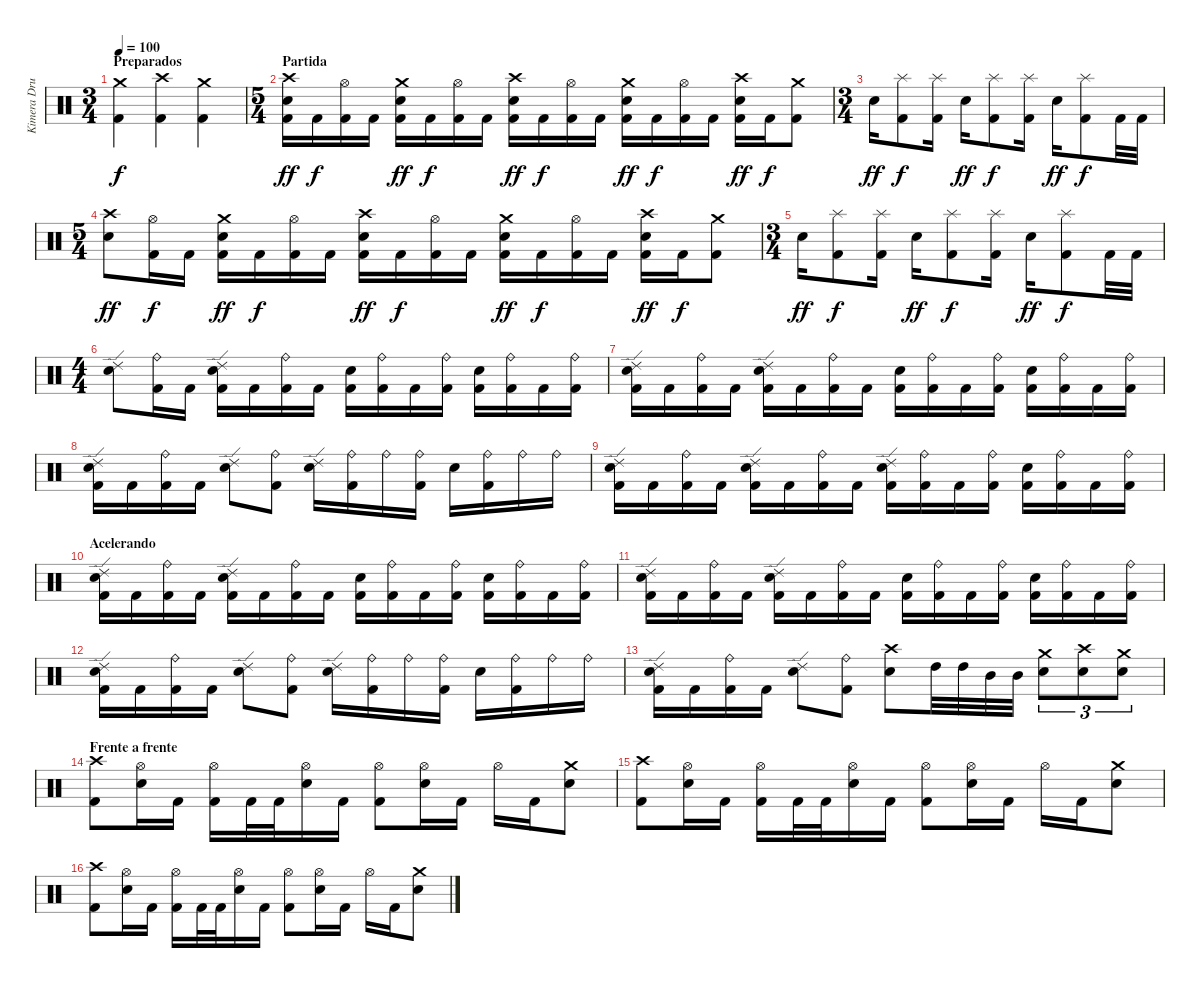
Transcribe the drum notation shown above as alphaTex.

\track ("Kimera Drummer" "Kimera Dru") {instrument percussion}
\staff {score}
\articulation defaults
\ts (3 4)
\section ("" "Preparados")
\tempo 100
\clef neutral
\ks c
("Crash medium (hit)" "Kick (hit) 2").4{dy f} ("Crash high (hit)" "Kick (hit) 2").4 ("Crash medium (hit)" "Kick (hit) 2").4 |
\ts (5 4)
\section ("" "Partida")
("Crash high (hit)" "Electric Snare (hit)" "Kick (hit) 2").16{dy ff} "Kick (hit) 2".16{dy f} ("Hi-Hat (open)" "Kick (hit) 2").16 "Kick (hit) 2".16 ("Crash medium (hit)" "Electric Snare (hit)" "Kick (hit) 2").16{dy ff} "Kick (hit) 2".16{dy f} ("Hi-Hat (open)" "Kick (hit) 2").16 "Kick (hit) 2".16 ("Crash high (hit)" "Electric Snare (hit)" "Kick (hit) 2").16{dy ff} "Kick (hit) 2".16{dy f} ("Hi-Hat (open)" "Kick (hit) 2").16 "Kick (hit) 2".16 ("Crash medium (hit)" "Electric Snare (hit)" "Kick (hit) 2").16{dy ff} "Kick (hit) 2".16{dy f} ("Hi-Hat (open)" "Kick (hit) 2").16 "Kick (hit) 2".16 ("Crash high (hit)" "Electric Snare (hit)" "Kick (hit) 2").16{dy ff} "Kick (hit) 2".16{dy f} ("Crash medium (hit)" "Kick (hit) 2").8 |
\ts (3 4)
"Electric Snare (hit)".16{dy ff} ("Splash (hit)" "Kick (hit) 2").8{dy f} ("Splash (hit)" "Kick (hit) 2").16 "Electric Snare (hit)".16{dy ff} ("Splash (hit)" "Kick (hit) 2").8{dy f} ("Splash (hit)" "Kick (hit) 2").16 "Electric Snare (hit)".16{dy ff} ("Splash (hit)" "Kick (hit) 2").8{dy f} "Kick (hit) 2".32 "Kick (hit) 2".32 |
\ts (5 4)
("Crash high (hit)" "Electric Snare (hit)").8{dy ff} ("Hi-Hat (open)" "Kick (hit) 2").16{dy f} "Kick (hit) 2".16 ("Crash medium (hit)" "Electric Snare (hit)" "Kick (hit) 2").16{dy ff} "Kick (hit) 2".16{dy f} ("Hi-Hat (open)" "Kick (hit) 2").16 "Kick (hit) 2".16 ("Crash high (hit)" "Electric Snare (hit)" "Kick (hit) 2").16{dy ff} "Kick (hit) 2".16{dy f} ("Hi-Hat (open)" "Kick (hit) 2").16 "Kick (hit) 2".16 ("Crash medium (hit)" "Electric Snare (hit)" "Kick (hit) 2").16{dy ff} "Kick (hit) 2".16{dy f} ("Hi-Hat (open)" "Kick (hit) 2").16 "Kick (hit) 2".16 ("Crash high (hit)" "Electric Snare (hit)" "Kick (hit) 2").16{dy ff} "Kick (hit) 2".16{dy f} ("Crash medium (hit)" "Kick (hit) 2").8 |
\ts (3 4)
"Electric Snare (hit)".16{dy ff} ("Splash (hit)" "Kick (hit) 2").8{dy f} ("Splash (hit)" "Kick (hit) 2").16 "Electric Snare (hit)".16{dy ff} ("Splash (hit)" "Kick (hit) 2").8{dy f} ("Splash (hit)" "Kick (hit) 2").16 "Electric Snare (hit)".16{dy ff} ("Splash (hit)" "Kick (hit) 2").8{dy f} "Kick (hit) 2".32 "Kick (hit) 2".32 |
\ts (4 4)
("Ride (edge) 2" "Electric Snare (hit)").8 ("Ride (bell)" "Kick (hit) 2").16 "Kick (hit) 2".16 ("Ride (edge) 2" "Electric Snare (hit)" "Kick (hit) 2").16 "Kick (hit) 2".16 ("Ride (bell)" "Kick (hit) 2").16 "Kick (hit) 2".16 ("Electric Snare (hit)" "Kick (hit) 2").16 ("Ride (bell)" "Kick (hit) 2").16 "Kick (hit) 2".16 ("Ride (bell)" "Kick (hit) 2").16 ("Electric Snare (hit)" "Kick (hit) 2").16 ("Ride (bell)" "Kick (hit) 2").16 "Kick (hit) 2".16 ("Ride (bell)" "Kick (hit) 2").16 |
("Ride (edge) 2" "Electric Snare (hit)" "Kick (hit) 2").16 "Kick (hit) 2".16 ("Ride (bell)" "Kick (hit) 2").16 "Kick (hit) 2".16 ("Ride (edge) 2" "Electric Snare (hit)" "Kick (hit) 2").16 "Kick (hit) 2".16 ("Ride (bell)" "Kick (hit) 2").16 "Kick (hit) 2".16 ("Electric Snare (hit)" "Kick (hit) 2").16 ("Ride (bell)" "Kick (hit) 2").16 "Kick (hit) 2".16 ("Ride (bell)" "Kick (hit) 2").16 ("Electric Snare (hit)" "Kick (hit) 2").16 ("Ride (bell)" "Kick (hit) 2").16 "Kick (hit) 2".16 ("Ride (bell)" "Kick (hit) 2").16 |
("Ride (edge) 2" "Electric Snare (hit)" "Kick (hit) 2").16 "Kick (hit) 2".16 ("Ride (bell)" "Kick (hit) 2").16 "Kick (hit) 2".16 ("Ride (edge) 2" "Electric Snare (hit)").8 ("Ride (bell)" "Kick (hit) 2").8 ("Ride (edge) 2" "Electric Snare (hit)").16 ("Ride (bell)" "Kick (hit) 2").16 "Ride (bell)".16 ("Ride (bell)" "Kick (hit) 2").16 "Electric Snare (hit)".16 ("Ride (bell)" "Kick (hit) 2").16 "Ride (bell)".16 "Ride (bell)".16 |
("Ride (edge) 2" "Electric Snare (hit)" "Kick (hit) 2").16 "Kick (hit) 2".16 ("Ride (bell)" "Kick (hit) 2").16 "Kick (hit) 2".16 ("Ride (edge) 2" "Electric Snare (hit)" "Kick (hit) 2").16 "Kick (hit) 2".16 ("Ride (bell)" "Kick (hit) 2").16 "Kick (hit) 2".16 ("Ride (edge) 2" "Electric Snare (hit)" "Kick (hit) 2").16 ("Ride (bell)" "Kick (hit) 2").16 "Kick (hit) 2".16 ("Ride (bell)" "Kick (hit) 2").16 ("Electric Snare (hit)" "Kick (hit) 2").16 ("Ride (bell)" "Kick (hit) 2").16 "Kick (hit) 2".16 ("Ride (bell)" "Kick (hit) 2").16 |
\section ("" "Acelerando ")
("Ride (edge) 2" "Electric Snare (hit)" "Kick (hit) 2").16 "Kick (hit) 2".16 ("Ride (bell)" "Kick (hit) 2").16 "Kick (hit) 2".16 ("Ride (edge) 2" "Electric Snare (hit)" "Kick (hit) 2").16 "Kick (hit) 2".16 ("Ride (bell)" "Kick (hit) 2").16 "Kick (hit) 2".16 ("Electric Snare (hit)" "Kick (hit) 2").16 ("Ride (bell)" "Kick (hit) 2").16 "Kick (hit) 2".16 ("Ride (bell)" "Kick (hit) 2").16 ("Electric Snare (hit)" "Kick (hit) 2").16 ("Ride (bell)" "Kick (hit) 2").16 "Kick (hit) 2".16 ("Ride (bell)" "Kick (hit) 2").16 |
("Ride (edge) 2" "Electric Snare (hit)" "Kick (hit) 2").16 "Kick (hit) 2".16 ("Ride (bell)" "Kick (hit) 2").16 "Kick (hit) 2".16 ("Ride (edge) 2" "Electric Snare (hit)" "Kick (hit) 2").16 "Kick (hit) 2".16 ("Ride (bell)" "Kick (hit) 2").16 "Kick (hit) 2".16 ("Electric Snare (hit)" "Kick (hit) 2").16 ("Ride (bell)" "Kick (hit) 2").16 "Kick (hit) 2".16 ("Ride (bell)" "Kick (hit) 2").16 ("Electric Snare (hit)" "Kick (hit) 2").16 ("Ride (bell)" "Kick (hit) 2").16 "Kick (hit) 2".16 ("Ride (bell)" "Kick (hit) 2").16 |
("Ride (edge) 2" "Electric Snare (hit)" "Kick (hit) 2").16 "Kick (hit) 2".16 ("Ride (bell)" "Kick (hit) 2").16 "Kick (hit) 2".16 ("Ride (edge) 2" "Electric Snare (hit)").8 ("Ride (bell)" "Kick (hit) 2").8 ("Ride (edge) 2" "Electric Snare (hit)").16 ("Ride (bell)" "Kick (hit) 2").16 "Ride (bell)".16 ("Ride (bell)" "Kick (hit) 2").16 "Electric Snare (hit)".16 ("Ride (bell)" "Kick (hit) 2").16 "Ride (bell)".16 "Ride (bell)".16 |
("Ride (edge) 2" "Electric Snare (hit)" "Kick (hit) 2").16 "Kick (hit) 2".16 ("Ride (bell)" "Kick (hit) 2").16 "Kick (hit) 2".16 ("Ride (edge) 2" "Electric Snare (hit)").8 ("Ride (bell)" "Kick (hit) 2").8 ("Crash high (hit)" "Electric Snare (hit)").8 "High Tom (hit)".32 "High Tom (hit)".32 "Mid Tom (hit)".32 "Mid Tom (hit)".32 ("Crash medium (hit)" "Electric Snare (hit)").8{tu (3 2)} ("Crash high (hit)" "Electric Snare (hit)").8{tu (3 2)} ("Crash medium (hit)" "Electric Snare (hit)").8{tu (3 2)} |
\section ("" "Frente a frente")
("Crash high (hit)" "Kick (hit) 2").8 ("Hi-Hat (open)" "Electric Snare (hit)").16 "Kick (hit) 2".16 ("Hi-Hat (open)" "Kick (hit) 2").16 "Kick (hit) 2".32 "Kick (hit) 2".32 ("Hi-Hat (open)" "Electric Snare (hit)").16 "Kick (hit) 2".16 ("Hi-Hat (open)" "Kick (hit) 2").8 ("Hi-Hat (open)" "Electric Snare (hit)").16 "Kick (hit) 2".16 "Hi-Hat (open)".16 "Kick (hit) 2".16 ("Crash medium (hit)" "Electric Snare (hit)").8 |
("Crash high (hit)" "Kick (hit) 2").8 ("Hi-Hat (open)" "Electric Snare (hit)").16 "Kick (hit) 2".16 ("Hi-Hat (open)" "Kick (hit) 2").16 "Kick (hit) 2".32 "Kick (hit) 2".32 ("Hi-Hat (open)" "Electric Snare (hit)").16 "Kick (hit) 2".16 ("Hi-Hat (open)" "Kick (hit) 2").8 ("Hi-Hat (open)" "Electric Snare (hit)").16 "Kick (hit) 2".16 "Hi-Hat (open)".16 "Kick (hit) 2".16 ("Crash medium (hit)" "Electric Snare (hit)").8 |
("Crash high (hit)" "Kick (hit) 2").8 ("Hi-Hat (open)" "Electric Snare (hit)").16 "Kick (hit) 2".16 ("Hi-Hat (open)" "Kick (hit) 2").16 "Kick (hit) 2".32 "Kick (hit) 2".32 ("Hi-Hat (open)" "Electric Snare (hit)").16 "Kick (hit) 2".16 ("Hi-Hat (open)" "Kick (hit) 2").8 ("Hi-Hat (open)" "Electric Snare (hit)").16 "Kick (hit) 2".16 "Hi-Hat (open)".16 "Kick (hit) 2".16 ("Crash medium (hit)" "Electric Snare (hit)").8
